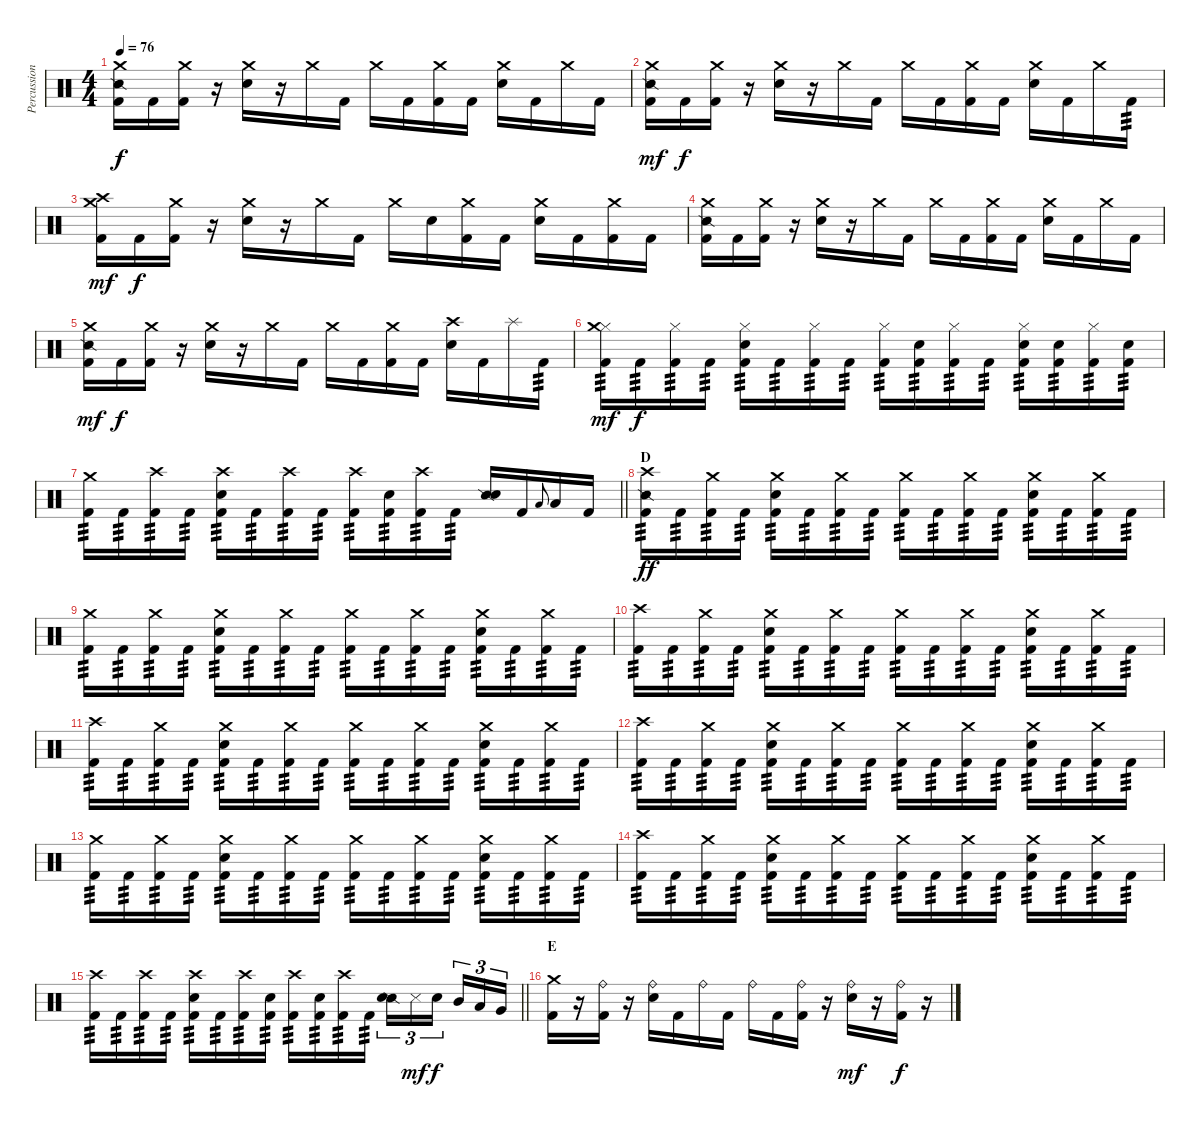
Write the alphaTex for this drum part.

\track ("Percussion" "Percussion") {instrument percussion}
\staff {score}
\articulation defaults
\ts (4 4)
\tempo 76
\clef neutral
\ks c
("Snare (side stick) 2" "Crash medium (hit)" "Kick (hit) 2").16{dy f} "Kick (hit) 2".16 ("Crash medium (hit)" "Kick (hit) 2").16 r.16 ("Crash medium (hit)" "Snare (hit) 2").16 r.16 "Crash medium (hit)".16 "Kick (hit) 2".16 "Crash medium (hit)".16 "Kick (hit) 2".16 ("Crash medium (hit)" "Kick (hit) 2").16 "Kick (hit) 2".16 ("Crash medium (hit)" "Snare (hit) 2").16 "Kick (hit) 2".16 "Crash medium (hit)".16 "Kick (hit) 2".16 |
("Crash medium (hit)" "Snare (side stick) 2" "Kick (hit) 2").16{dy mf} "Kick (hit) 2".16{dy f} ("Crash medium (hit)" "Kick (hit) 2").16 r.16 ("Crash medium (hit)" "Snare (hit) 2").16 r.16 "Crash medium (hit)".16 "Kick (hit) 2".16 "Crash medium (hit)".16 "Kick (hit) 2".16 ("Crash medium (hit)" "Kick (hit) 2").16 "Kick (hit) 2".16 ("Crash medium (hit)" "Snare (hit) 2").16 "Kick (hit) 2".16 "Crash medium (hit)".16 "Kick (hit) 2".16{tp 3} |
("Crash medium (hit)" "Crash high (hit)" "Kick (hit) 2").16{dy mf} "Kick (hit) 2".16{dy f} ("Crash medium (hit)" "Kick (hit) 2").16 r.16 ("Crash medium (hit)" "Snare (hit) 2").16 r.16 "Crash medium (hit)".16 "Kick (hit) 2".16 "Crash medium (hit)".16 "Snare (hit) 2".16 ("Crash medium (hit)" "Kick (hit) 2").16 "Kick (hit) 2".16 ("Crash medium (hit)" "Snare (hit) 2").16 "Kick (hit) 2".16 ("Crash medium (hit)" "Kick (hit) 2").16 "Kick (hit) 2".16 |
("Snare (side stick) 2" "Crash medium (hit)" "Kick (hit) 2").16 "Kick (hit) 2".16 ("Crash medium (hit)" "Kick (hit) 2").16 r.16 ("Crash medium (hit)" "Snare (hit) 2").16 r.16 "Crash medium (hit)".16 "Kick (hit) 2".16 "Crash medium (hit)".16 "Kick (hit) 2".16 ("Crash medium (hit)" "Kick (hit) 2").16 "Kick (hit) 2".16 ("Crash medium (hit)" "Snare (hit) 2").16 "Kick (hit) 2".16 "Crash medium (hit)".16 "Kick (hit) 2".16 |
("Crash medium (hit)" "Snare (side stick) 2" "Kick (hit) 2").16{dy mf} "Kick (hit) 2".16{dy f} ("Crash medium (hit)" "Kick (hit) 2").16 r.16 ("Crash medium (hit)" "Snare (hit) 2").16 r.16 "Crash medium (hit)".16 "Kick (hit) 2".16 "Crash medium (hit)".16 "Kick (hit) 2".16 ("Crash medium (hit)" "Kick (hit) 2").16 "Kick (hit) 2".16 ("Crash high (hit)" "Snare (hit) 2").16 "Kick (hit) 2".16 "Splash (hit)".16 "Kick (hit) 2".16{tp 3} |
("Hi-Hat (closed)" "Crash medium (hit)" "Kick (hit) 2").16{tp 3 dy mf} "Kick (hit) 2".16{tp 3 dy f} ("Hi-Hat (closed)" "Kick (hit) 2").16{tp 3} "Kick (hit) 2".16{tp 3} ("Hi-Hat (closed)" "Snare (hit) 2" "Kick (hit) 2").16{tp 3} "Kick (hit) 2".16{tp 3} ("Hi-Hat (closed)" "Kick (hit) 2").16{tp 3} "Kick (hit) 2".16{tp 3} ("Hi-Hat (closed)" "Kick (hit) 2").16{tp 3} ("Snare (hit) 2" "Kick (hit) 2").16{tp 3} ("Hi-Hat (closed)" "Kick (hit) 2").16{tp 3} "Kick (hit) 2".16{tp 3} ("Hi-Hat (closed)" "Snare (hit) 2" "Kick (hit) 2").16{tp 3} ("Snare (hit) 2" "Kick (hit) 2").16{tp 3} ("Hi-Hat (closed)" "Kick (hit) 2").16{tp 3} ("Snare (hit) 2" "Kick (hit) 2").16{tp 3} |
\barLineRight lightlight
("Crash medium (hit)" "Kick (hit) 2").16{tp 3} "Kick (hit) 2".16{tp 3} ("Crash high (hit)" "Kick (hit) 2").16{tp 3} "Kick (hit) 2".16{tp 3} ("Crash high (hit)" "Snare (hit) 2" "Kick (hit) 2").16{tp 3} "Kick (hit) 2".16{tp 3} ("Crash high (hit)" "Kick (hit) 2").16{tp 3} "Kick (hit) 2".16{tp 3} ("Crash high (hit)" "Kick (hit) 2").16{tp 3} ("Snare (hit) 2" "Kick (hit) 2").16{tp 3} ("Crash high (hit)" "Kick (hit) 2").16{tp 3} "Kick (hit) 2".16{tp 3} ("Snare (side stick) 2" "Snare (hit) 2").16 "Kick (hit) 2".16 "Low Floor Tom (hit)".8{gr onbeat} "Low Floor Tom (hit)".16 "Kick (hit) 2".16 |
\section ("" "D")
("Crash high (hit)" "Snare (side stick) 2" "Kick (hit) 2").16{tp 3 dy ff} "Kick (hit) 2".16{tp 3} ("Crash medium (hit)" "Kick (hit) 2").16{tp 3} "Kick (hit) 2".16{tp 3} ("Crash medium (hit)" "Snare (hit) 2" "Kick (hit) 2").16{tp 3} "Kick (hit) 2".16{tp 3} ("Crash medium (hit)" "Kick (hit) 2").16{tp 3} "Kick (hit) 2".16{tp 3} ("Crash medium (hit)" "Kick (hit) 2").16{tp 3} "Kick (hit) 2".16{tp 3} ("Crash medium (hit)" "Kick (hit) 2").16{tp 3} "Kick (hit) 2".16{tp 3} ("Crash medium (hit)" "Snare (hit) 2" "Kick (hit) 2").16{tp 3} "Kick (hit) 2".16{tp 3} ("Crash medium (hit)" "Kick (hit) 2").16{tp 3} "Kick (hit) 2".16{tp 3} |
("Crash medium (hit)" "Kick (hit) 2").16{tp 3} "Kick (hit) 2".16{tp 3} ("Crash medium (hit)" "Kick (hit) 2").16{tp 3} "Kick (hit) 2".16{tp 3} ("Crash medium (hit)" "Snare (hit) 2" "Kick (hit) 2").16{tp 3} "Kick (hit) 2".16{tp 3} ("Crash medium (hit)" "Kick (hit) 2").16{tp 3} "Kick (hit) 2".16{tp 3} ("Crash medium (hit)" "Kick (hit) 2").16{tp 3} "Kick (hit) 2".16{tp 3} ("Crash medium (hit)" "Kick (hit) 2").16{tp 3} "Kick (hit) 2".16{tp 3} ("Crash medium (hit)" "Snare (hit) 2" "Kick (hit) 2").16{tp 3} "Kick (hit) 2".16{tp 3} ("Crash medium (hit)" "Kick (hit) 2").16{tp 3} "Kick (hit) 2".16{tp 3} |
("Crash high (hit)" "Kick (hit) 2").16{tp 3} "Kick (hit) 2".16{tp 3} ("Crash medium (hit)" "Kick (hit) 2").16{tp 3} "Kick (hit) 2".16{tp 3} ("Crash medium (hit)" "Snare (hit) 2" "Kick (hit) 2").16{tp 3} "Kick (hit) 2".16{tp 3} ("Crash medium (hit)" "Kick (hit) 2").16{tp 3} "Kick (hit) 2".16{tp 3} ("Crash medium (hit)" "Kick (hit) 2").16{tp 3} "Kick (hit) 2".16{tp 3} ("Crash medium (hit)" "Kick (hit) 2").16{tp 3} "Kick (hit) 2".16{tp 3} ("Crash medium (hit)" "Snare (hit) 2" "Kick (hit) 2").16{tp 3} "Kick (hit) 2".16{tp 3} ("Crash medium (hit)" "Kick (hit) 2").16{tp 3} "Kick (hit) 2".16{tp 3} |
("Crash high (hit)" "Kick (hit) 2").16{tp 3} "Kick (hit) 2".16{tp 3} ("Crash medium (hit)" "Kick (hit) 2").16{tp 3} "Kick (hit) 2".16{tp 3} ("Crash medium (hit)" "Snare (hit) 2" "Kick (hit) 2").16{tp 3} "Kick (hit) 2".16{tp 3} ("Crash medium (hit)" "Kick (hit) 2").16{tp 3} "Kick (hit) 2".16{tp 3} ("Crash medium (hit)" "Kick (hit) 2").16{tp 3} "Kick (hit) 2".16{tp 3} ("Crash medium (hit)" "Kick (hit) 2").16{tp 3} "Kick (hit) 2".16{tp 3} ("Crash medium (hit)" "Snare (hit) 2" "Kick (hit) 2").16{tp 3} "Kick (hit) 2".16{tp 3} ("Crash medium (hit)" "Kick (hit) 2").16{tp 3} "Kick (hit) 2".16{tp 3} |
("Crash high (hit)" "Kick (hit) 2").16{tp 3} "Kick (hit) 2".16{tp 3} ("Crash medium (hit)" "Kick (hit) 2").16{tp 3} "Kick (hit) 2".16{tp 3} ("Crash medium (hit)" "Snare (hit) 2" "Kick (hit) 2").16{tp 3} "Kick (hit) 2".16{tp 3} ("Crash medium (hit)" "Kick (hit) 2").16{tp 3} "Kick (hit) 2".16{tp 3} ("Crash medium (hit)" "Kick (hit) 2").16{tp 3} "Kick (hit) 2".16{tp 3} ("Crash medium (hit)" "Kick (hit) 2").16{tp 3} "Kick (hit) 2".16{tp 3} ("Crash medium (hit)" "Snare (hit) 2" "Kick (hit) 2").16{tp 3} "Kick (hit) 2".16{tp 3} ("Crash medium (hit)" "Kick (hit) 2").16{tp 3} "Kick (hit) 2".16{tp 3} |
("Crash medium (hit)" "Kick (hit) 2").16{tp 3} "Kick (hit) 2".16{tp 3} ("Crash medium (hit)" "Kick (hit) 2").16{tp 3} "Kick (hit) 2".16{tp 3} ("Crash medium (hit)" "Snare (hit) 2" "Kick (hit) 2").16{tp 3} "Kick (hit) 2".16{tp 3} ("Crash medium (hit)" "Kick (hit) 2").16{tp 3} "Kick (hit) 2".16{tp 3} ("Crash medium (hit)" "Kick (hit) 2").16{tp 3} "Kick (hit) 2".16{tp 3} ("Crash medium (hit)" "Kick (hit) 2").16{tp 3} "Kick (hit) 2".16{tp 3} ("Crash medium (hit)" "Snare (hit) 2" "Kick (hit) 2").16{tp 3} "Kick (hit) 2".16{tp 3} ("Crash medium (hit)" "Kick (hit) 2").16{tp 3} "Kick (hit) 2".16{tp 3} |
("Crash high (hit)" "Kick (hit) 2").16{tp 3} "Kick (hit) 2".16{tp 3} ("Crash medium (hit)" "Kick (hit) 2").16{tp 3} "Kick (hit) 2".16{tp 3} ("Crash medium (hit)" "Snare (hit) 2" "Kick (hit) 2").16{tp 3} "Kick (hit) 2".16{tp 3} ("Crash medium (hit)" "Kick (hit) 2").16{tp 3} "Kick (hit) 2".16{tp 3} ("Crash medium (hit)" "Kick (hit) 2").16{tp 3} "Kick (hit) 2".16{tp 3} ("Crash medium (hit)" "Kick (hit) 2").16{tp 3} "Kick (hit) 2".16{tp 3} ("Crash medium (hit)" "Snare (hit) 2" "Kick (hit) 2").16{tp 3} "Kick (hit) 2".16{tp 3} ("Crash medium (hit)" "Kick (hit) 2").16{tp 3} "Kick (hit) 2".16{tp 3} |
\barLineRight lightlight
("Crash high (hit)" "Kick (hit) 2").16{tp 3} "Kick (hit) 2".16{tp 3} ("Crash high (hit)" "Kick (hit) 2").16{tp 3} "Kick (hit) 2".16{tp 3} ("Crash high (hit)" "Snare (hit) 2" "Kick (hit) 2").16{tp 3} "Kick (hit) 2".16{tp 3} ("Crash high (hit)" "Kick (hit) 2").16{tp 3} ("Snare (hit) 2" "Kick (hit) 2").16{tp 3} ("Crash high (hit)" "Kick (hit) 2").16{tp 3} ("Snare (hit) 2" "Kick (hit) 2").16{tp 3} ("Crash high (hit)" "Kick (hit) 2").16{tp 3} "Kick (hit) 2".16{tp 3} ("Snare (side stick) 2" "Snare (hit) 2").16{tu (3 2)} "Metronome (hit)".16{tu (3 2) dy mf} "Snare (hit) 2".16{tu (3 2) dy f beam splitsecondary} "Mid Tom (hit)".16{tu (3 2)} "Low Tom (hit)".16{tu (3 2)} "Very Low Tom (hit)".16{tu (3 2)} |
\section ("" "E")
("Crash medium (hit)" "Kick (hit) 2").16 r.16 ("Ride (bell)" "Kick (hit) 2").16 r.16 ("Ride (bell)" "Snare (hit) 2").16 "Kick (hit) 2".16 "Ride (bell)".16 "Kick (hit) 2".16 "Ride (bell)".16 "Kick (hit) 2".16 ("Ride (bell)" "Kick (hit) 2").16 r.16 ("Ride (bell)" "Snare (hit) 2").16{dy mf} r.16 ("Ride (bell)" "Kick (hit) 2").16{dy f} r.16
